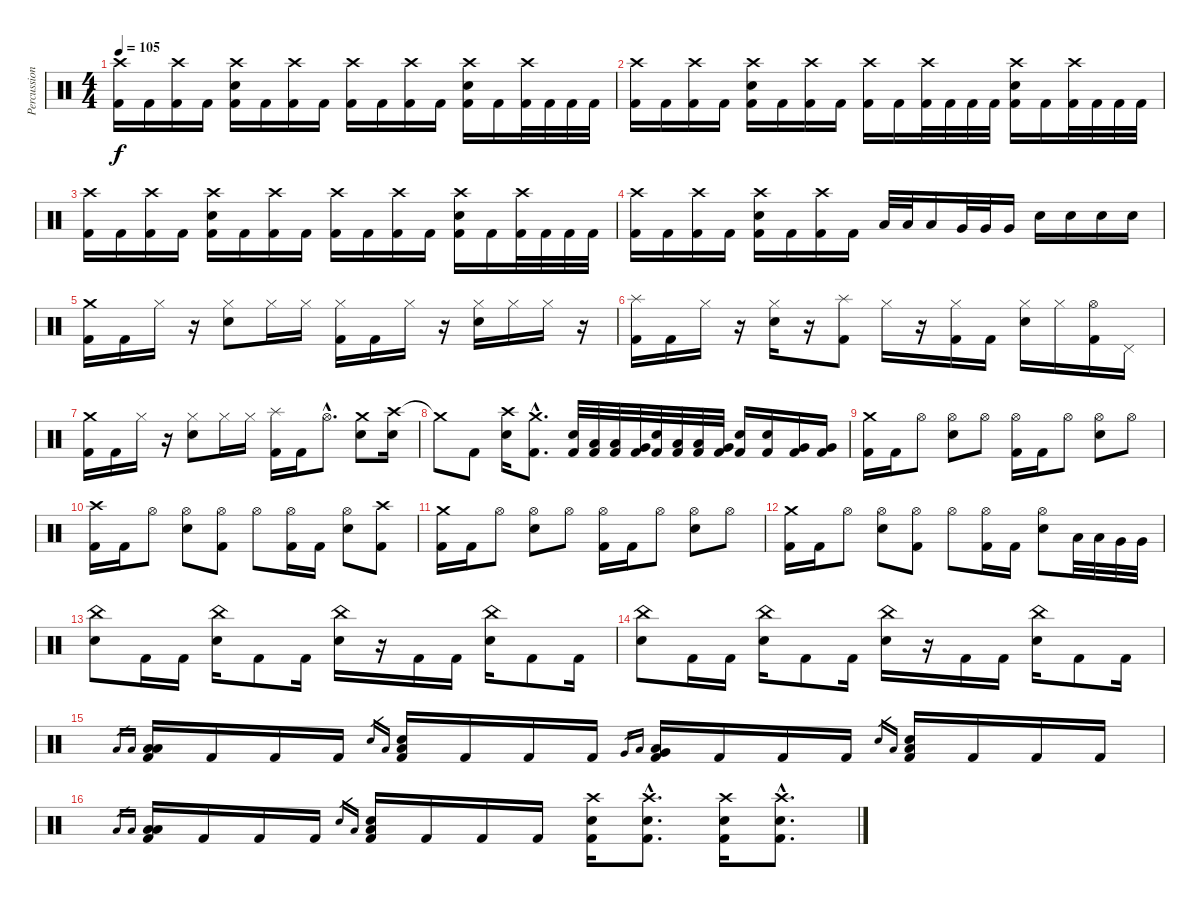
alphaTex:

\track ("Percussions" "Percussion") {instrument percussion}
\staff {score}
\articulation defaults
\ts (4 4)
\tempo 105
\clef neutral
\ks c
("Crash high (hit)" "Kick (hit) 2").16{dy f} "Kick (hit) 2".16 ("Crash high (hit)" "Kick (hit) 2").16 "Kick (hit) 2".16 ("Crash high (hit)" "Electric Snare (hit)" "Kick (hit) 2").16 "Kick (hit) 2".16 ("Crash high (hit)" "Kick (hit) 2").16 "Kick (hit) 2".16 ("Crash high (hit)" "Kick (hit) 2").16 "Kick (hit) 2".16 ("Crash high (hit)" "Kick (hit) 2").16 "Kick (hit) 2".16 ("Crash high (hit)" "Electric Snare (hit)" "Kick (hit) 2").16 "Kick (hit) 2".16 ("Crash high (hit)" "Kick (hit) 2").32 "Kick (hit) 2".32 "Kick (hit) 2".32 "Kick (hit) 2".32 |
("Crash high (hit)" "Kick (hit) 2").16 "Kick (hit) 2".16 ("Crash high (hit)" "Kick (hit) 2").16 "Kick (hit) 2".16 ("Crash high (hit)" "Electric Snare (hit)" "Kick (hit) 2").16 "Kick (hit) 2".16 ("Crash high (hit)" "Kick (hit) 2").16 "Kick (hit) 2".16 ("Crash high (hit)" "Kick (hit) 2").16 "Kick (hit) 2".16 ("Crash high (hit)" "Kick (hit) 2").32 "Kick (hit) 2".32 "Kick (hit) 2".32 "Kick (hit) 2".32 ("Crash high (hit)" "Electric Snare (hit)" "Kick (hit) 2").16 "Kick (hit) 2".16 ("Crash high (hit)" "Kick (hit) 2").32 "Kick (hit) 2".32 "Kick (hit) 2".32 "Kick (hit) 2".32 |
("Crash high (hit)" "Kick (hit) 2").16 "Kick (hit) 2".16 ("Crash high (hit)" "Kick (hit) 2").16 "Kick (hit) 2".16 ("Crash high (hit)" "Electric Snare (hit)" "Kick (hit) 2").16 "Kick (hit) 2".16 ("Crash high (hit)" "Kick (hit) 2").16 "Kick (hit) 2".16 ("Crash high (hit)" "Kick (hit) 2").16 "Kick (hit) 2".16 ("Crash high (hit)" "Kick (hit) 2").16 "Kick (hit) 2".16 ("Crash high (hit)" "Electric Snare (hit)" "Kick (hit) 2").16 "Kick (hit) 2".16 ("Crash high (hit)" "Kick (hit) 2").32 "Kick (hit) 2".32 "Kick (hit) 2".32 "Kick (hit) 2".32 |
("Crash high (hit)" "Kick (hit) 2").16 "Kick (hit) 2".16 ("Crash high (hit)" "Kick (hit) 2").16 "Kick (hit) 2".16 ("Crash high (hit)" "Electric Snare (hit)" "Kick (hit) 2").16 "Kick (hit) 2".16 ("Crash high (hit)" "Kick (hit) 2").16 "Kick (hit) 2".16 "Low Tom (hit)".32 "Low Tom (hit)".32 "Low Tom (hit)".16 "Very Low Tom (hit)".32 "Very Low Tom (hit)".32 "Very Low Tom (hit)".16 "Electric Snare (hit)".16 "Electric Snare (hit)".16 "Electric Snare (hit)".16 "Electric Snare (hit)".16 |
("Crash medium (hit)" "Kick (hit) 2").16 "Kick (hit) 2".16 "Hi-Hat (closed)".16 r.16 ("Hi-Hat (closed)" "Electric Snare (hit)").8 "Hi-Hat (closed)".16 "Hi-Hat (closed)".16 ("Hi-Hat (closed)" "Kick (hit) 2").16 "Kick (hit) 2".16 "Hi-Hat (closed)".16 r.16 ("Hi-Hat (closed)" "Electric Snare (hit)").16 "Hi-Hat (closed)".16 "Hi-Hat (closed)".16 r.16 |
("Splash (hit)" "Kick (hit) 2").16 "Kick (hit) 2".16 "Hi-Hat (closed)".16 r.16 ("Hi-Hat (closed)" "Electric Snare (hit)").16 r.16 ("Splash (hit)" "Kick (hit) 2").8 "Hi-Hat (closed)".16 r.16 ("Hi-Hat (closed)" "Kick (hit) 2").16 "Kick (hit) 2".16 ("Hi-Hat (closed)" "Electric Snare (hit)").16 "Hi-Hat (closed)".16 ("Hi-Hat (open)" "Kick (hit) 2").16 "Pedal Hi-Hat (hit)".16 |
("Crash medium (hit)" "Kick (hit) 2").16 "Kick (hit) 2".16 "Hi-Hat (closed)".16 r.16 ("Hi-Hat (closed)" "Electric Snare (hit)").8 "Hi-Hat (closed)".16 "Hi-Hat (closed)".16 ("Splash (hit)" "Kick (hit) 2").16 "Kick (hit) 2".16 "Hi-Hat (open)"{hac}.8{d} ("Crash medium (hit)" "Electric Snare (hit)").8 ("Crash high (hit)" "Electric Snare (hit)").16 |
"Crash medium (hit)"{t}.8 "Kick (hit) 2".8 ("Crash high (hit)" "Electric Snare (hit)").16 ("Crash medium (hit)"{hac} "Kick (hit) 2"{hac}).8{d} ("Electric Snare (hit)" "Kick (hit) 2").32 ("Low Tom (hit)" "Kick (hit) 2").32 ("Low Tom (hit)" "Kick (hit) 2").32 ("Very Low Tom (hit)" "Kick (hit) 2").32 ("Electric Snare (hit)" "Kick (hit) 2").32 ("Low Tom (hit)" "Kick (hit) 2").32 ("Low Tom (hit)" "Kick (hit) 2").32 ("Very Low Tom (hit)" "Kick (hit) 2").32 ("Electric Snare (hit)" "Kick (hit) 2").16 ("Electric Snare (hit)" "Kick (hit) 2").16 ("Very Low Tom (hit)" "Kick (hit) 2").16 ("Very Low Tom (hit)" "Kick (hit) 2").16 |
("Crash medium (hit)" "Kick (hit) 2").16 "Kick (hit) 2".16 "Hi-Hat (open)".8 ("Hi-Hat (open)" "Electric Snare (hit)").8 "Hi-Hat (open)".8 ("Hi-Hat (open)" "Kick (hit) 2").16 "Kick (hit) 2".16 "Hi-Hat (open)".8 ("Hi-Hat (open)" "Electric Snare (hit)").8 "Hi-Hat (open)".8 |
("Crash high (hit)" "Kick (hit) 2").16 "Kick (hit) 2".16 "Hi-Hat (open)".8 ("Hi-Hat (open)" "Electric Snare (hit)").8 ("Hi-Hat (open)" "Kick (hit) 2").8 "Hi-Hat (open)".8 ("Hi-Hat (open)" "Kick (hit) 2").16 "Kick (hit) 2".16 ("Hi-Hat (open)" "Electric Snare (hit)").8 ("Crash high (hit)" "Kick (hit) 2").8 |
("Crash medium (hit)" "Kick (hit) 2").16 "Kick (hit) 2".16 "Hi-Hat (open)".8 ("Hi-Hat (open)" "Electric Snare (hit)").8 "Hi-Hat (open)".8 ("Hi-Hat (open)" "Kick (hit) 2").16 "Kick (hit) 2".16 "Hi-Hat (open)".8 ("Hi-Hat (open)" "Electric Snare (hit)").8 "Hi-Hat (open)".8 |
("Crash medium (hit)" "Kick (hit) 2").16 "Kick (hit) 2".16 "Hi-Hat (open)".8 ("Hi-Hat (open)" "Electric Snare (hit)").8 ("Hi-Hat (open)" "Kick (hit) 2").8 "Hi-Hat (open)".8 ("Hi-Hat (open)" "Kick (hit) 2").16 "Kick (hit) 2".16 ("Hi-Hat (open)" "Electric Snare (hit)").8 "Low Tom (hit)".32 "Low Tom (hit)".32 "Very Low Tom (hit)".32 "Very Low Tom (hit)".32 |
("China (hit)" "Electric Snare (hit)").8 "Kick (hit) 2".16 "Kick (hit) 2".16 ("China (hit)" "Electric Snare (hit)").16 "Kick (hit) 2".8 "Kick (hit) 2".16 ("China (hit)" "Electric Snare (hit)").16 r.16 "Kick (hit) 2".16 "Kick (hit) 2".16 ("China (hit)" "Electric Snare (hit)").16 "Kick (hit) 2".8 "Kick (hit) 2".16 |
("China (hit)" "Electric Snare (hit)").8 "Kick (hit) 2".16 "Kick (hit) 2".16 ("China (hit)" "Electric Snare (hit)").16 "Kick (hit) 2".8 "Kick (hit) 2".16 ("China (hit)" "Electric Snare (hit)").16 r.16 "Kick (hit) 2".16 "Kick (hit) 2".16 ("China (hit)" "Electric Snare (hit)").16 "Kick (hit) 2".8 "Kick (hit) 2".16 |
"Low Tom (hit)".16{gr} "Low Floor Tom (hit)".16{gr} ("Low Tom (hit)" "Low Floor Tom (hit)" "Kick (hit) 2").16 "Kick (hit) 2".16 "Kick (hit) 2".16 "Kick (hit) 2".16 "Electric Snare (hit)".16{gr} "Low Floor Tom (hit)".16{gr} ("Electric Snare (hit)" "Low Floor Tom (hit)" "Kick (hit) 2").16 "Kick (hit) 2".16 "Kick (hit) 2".16 "Kick (hit) 2".16 "Very Low Tom (hit)".16{gr} "Low Floor Tom (hit)".16{gr} ("Very Low Tom (hit)" "Low Floor Tom (hit)" "Kick (hit) 2").16 "Kick (hit) 2".16 "Kick (hit) 2".16 "Kick (hit) 2".16 "Electric Snare (hit)".16{gr} "Low Floor Tom (hit)".16{gr} ("Electric Snare (hit)" "Low Floor Tom (hit)" "Kick (hit) 2").16 "Kick (hit) 2".16 "Kick (hit) 2".16 "Kick (hit) 2".16 |
"Low Tom (hit)".16{gr} "Low Floor Tom (hit)".16{gr} ("Low Tom (hit)" "Low Floor Tom (hit)" "Kick (hit) 2").16 "Kick (hit) 2".16 "Kick (hit) 2".16 "Kick (hit) 2".16 "Electric Snare (hit)".16{gr} "Low Floor Tom (hit)".16{gr} ("Electric Snare (hit)" "Low Floor Tom (hit)" "Kick (hit) 2").16 "Kick (hit) 2".16 "Kick (hit) 2".16 "Kick (hit) 2".16 ("Crash high (hit)" "Electric Snare (hit)" "Kick (hit) 2").16 ("Crash high (hit)"{hac} "Electric Snare (hit)"{hac} "Kick (hit) 2"{hac}).8{d} ("Crash high (hit)" "Electric Snare (hit)" "Kick (hit) 2").16 ("Crash high (hit)"{hac} "Electric Snare (hit)"{hac} "Kick (hit) 2"{hac}).8{d}
